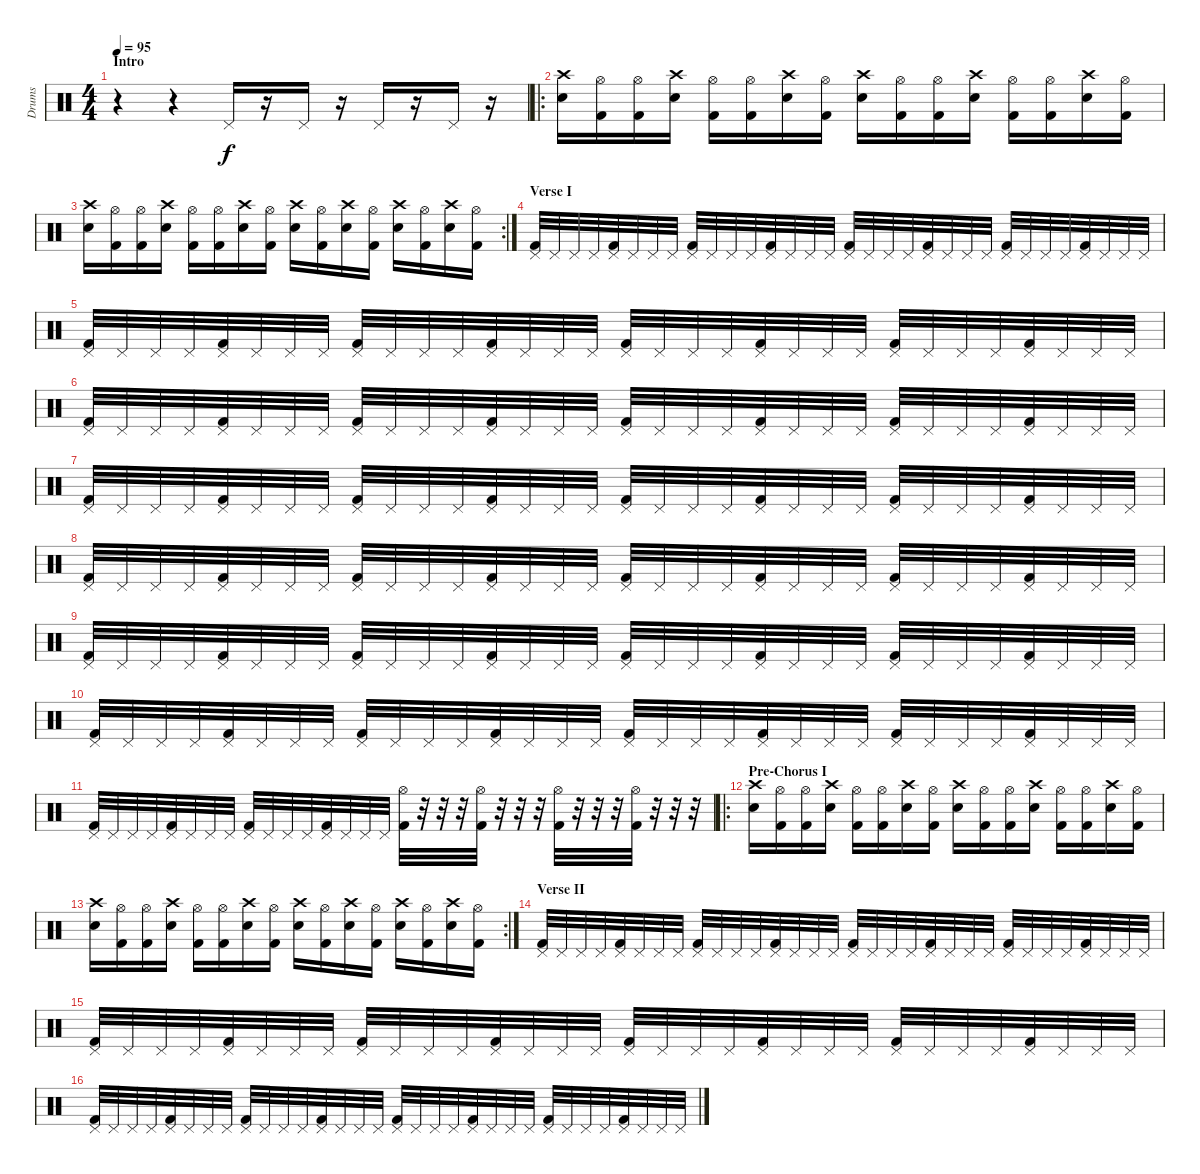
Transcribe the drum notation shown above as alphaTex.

\track ("Drums" "Drums") {instrument percussion}
\staff {score}
\articulation defaults
\ts (4 4)
\section ("" "Intro")
\tempo 95
\clef neutral
\ks c
r.4{dy f} r.4 "Pedal Hi-Hat (hit)".16 r.16 "Pedal Hi-Hat (hit)".16 r.16 "Pedal Hi-Hat (hit)".16 r.16 "Pedal Hi-Hat (hit)".16 r.16 |
\ro
("Crash high (hit)" "Electric Snare (hit)").16 ("Hi-Hat (open)" "Kick (hit) 2").16 ("Hi-Hat (open)" "Kick (hit) 2").16 ("Crash high (hit)" "Electric Snare (hit)").16 ("Hi-Hat (open)" "Kick (hit) 2").16 ("Hi-Hat (open)" "Kick (hit) 2").16 ("Crash high (hit)" "Electric Snare (hit)").16 ("Hi-Hat (open)" "Kick (hit) 2").16 ("Crash high (hit)" "Electric Snare (hit)").16 ("Hi-Hat (open)" "Kick (hit) 2").16 ("Hi-Hat (open)" "Kick (hit) 2").16 ("Crash high (hit)" "Electric Snare (hit)").16 ("Hi-Hat (open)" "Kick (hit) 2").16 ("Hi-Hat (open)" "Kick (hit) 2").16 ("Crash high (hit)" "Electric Snare (hit)").16 ("Hi-Hat (open)" "Kick (hit) 2").16 |
\rc 2
("Crash high (hit)" "Electric Snare (hit)").16 ("Hi-Hat (open)" "Kick (hit) 2").16 ("Hi-Hat (open)" "Kick (hit) 2").16 ("Crash high (hit)" "Electric Snare (hit)").16 ("Hi-Hat (open)" "Kick (hit) 2").16 ("Hi-Hat (open)" "Kick (hit) 2").16 ("Crash high (hit)" "Electric Snare (hit)").16 ("Hi-Hat (open)" "Kick (hit) 2").16 ("Crash high (hit)" "Electric Snare (hit)").16 ("Hi-Hat (open)" "Kick (hit) 2").16 ("Crash high (hit)" "Electric Snare (hit)").16 ("Hi-Hat (open)" "Kick (hit) 2").16 ("Crash high (hit)" "Electric Snare (hit)").16 ("Hi-Hat (open)" "Kick (hit) 2").16 ("Crash high (hit)" "Electric Snare (hit)").16 ("Hi-Hat (open)" "Kick (hit) 2").16 |
\section ("" "Verse I")
("Pedal Hi-Hat (hit)" "Kick (hit) 2").32 "Pedal Hi-Hat (hit)".32 "Pedal Hi-Hat (hit)".32 "Pedal Hi-Hat (hit)".32 ("Pedal Hi-Hat (hit)" "Kick (hit) 2").32 "Pedal Hi-Hat (hit)".32 "Pedal Hi-Hat (hit)".32 "Pedal Hi-Hat (hit)".32 ("Pedal Hi-Hat (hit)" "Kick (hit) 2").32 "Pedal Hi-Hat (hit)".32 "Pedal Hi-Hat (hit)".32 "Pedal Hi-Hat (hit)".32 ("Pedal Hi-Hat (hit)" "Kick (hit) 2").32 "Pedal Hi-Hat (hit)".32 "Pedal Hi-Hat (hit)".32 "Pedal Hi-Hat (hit)".32 ("Pedal Hi-Hat (hit)" "Kick (hit) 2").32 "Pedal Hi-Hat (hit)".32 "Pedal Hi-Hat (hit)".32 "Pedal Hi-Hat (hit)".32 ("Pedal Hi-Hat (hit)" "Kick (hit) 2").32 "Pedal Hi-Hat (hit)".32 "Pedal Hi-Hat (hit)".32 "Pedal Hi-Hat (hit)".32 ("Pedal Hi-Hat (hit)" "Kick (hit) 2").32 "Pedal Hi-Hat (hit)".32 "Pedal Hi-Hat (hit)".32 "Pedal Hi-Hat (hit)".32 ("Pedal Hi-Hat (hit)" "Kick (hit) 2").32 "Pedal Hi-Hat (hit)".32 "Pedal Hi-Hat (hit)".32 "Pedal Hi-Hat (hit)".32 |
("Pedal Hi-Hat (hit)" "Kick (hit) 2").32 "Pedal Hi-Hat (hit)".32 "Pedal Hi-Hat (hit)".32 "Pedal Hi-Hat (hit)".32 ("Pedal Hi-Hat (hit)" "Kick (hit) 2").32 "Pedal Hi-Hat (hit)".32 "Pedal Hi-Hat (hit)".32 "Pedal Hi-Hat (hit)".32 ("Pedal Hi-Hat (hit)" "Kick (hit) 2").32 "Pedal Hi-Hat (hit)".32 "Pedal Hi-Hat (hit)".32 "Pedal Hi-Hat (hit)".32 ("Pedal Hi-Hat (hit)" "Kick (hit) 2").32 "Pedal Hi-Hat (hit)".32 "Pedal Hi-Hat (hit)".32 "Pedal Hi-Hat (hit)".32 ("Pedal Hi-Hat (hit)" "Kick (hit) 2").32 "Pedal Hi-Hat (hit)".32 "Pedal Hi-Hat (hit)".32 "Pedal Hi-Hat (hit)".32 ("Pedal Hi-Hat (hit)" "Kick (hit) 2").32 "Pedal Hi-Hat (hit)".32 "Pedal Hi-Hat (hit)".32 "Pedal Hi-Hat (hit)".32 ("Pedal Hi-Hat (hit)" "Kick (hit) 2").32 "Pedal Hi-Hat (hit)".32 "Pedal Hi-Hat (hit)".32 "Pedal Hi-Hat (hit)".32 ("Pedal Hi-Hat (hit)" "Kick (hit) 2").32 "Pedal Hi-Hat (hit)".32 "Pedal Hi-Hat (hit)".32 "Pedal Hi-Hat (hit)".32 |
("Pedal Hi-Hat (hit)" "Kick (hit) 2").32 "Pedal Hi-Hat (hit)".32 "Pedal Hi-Hat (hit)".32 "Pedal Hi-Hat (hit)".32 ("Pedal Hi-Hat (hit)" "Kick (hit) 2").32 "Pedal Hi-Hat (hit)".32 "Pedal Hi-Hat (hit)".32 "Pedal Hi-Hat (hit)".32 ("Pedal Hi-Hat (hit)" "Kick (hit) 2").32 "Pedal Hi-Hat (hit)".32 "Pedal Hi-Hat (hit)".32 "Pedal Hi-Hat (hit)".32 ("Pedal Hi-Hat (hit)" "Kick (hit) 2").32 "Pedal Hi-Hat (hit)".32 "Pedal Hi-Hat (hit)".32 "Pedal Hi-Hat (hit)".32 ("Pedal Hi-Hat (hit)" "Kick (hit) 2").32 "Pedal Hi-Hat (hit)".32 "Pedal Hi-Hat (hit)".32 "Pedal Hi-Hat (hit)".32 ("Pedal Hi-Hat (hit)" "Kick (hit) 2").32 "Pedal Hi-Hat (hit)".32 "Pedal Hi-Hat (hit)".32 "Pedal Hi-Hat (hit)".32 ("Pedal Hi-Hat (hit)" "Kick (hit) 2").32 "Pedal Hi-Hat (hit)".32 "Pedal Hi-Hat (hit)".32 "Pedal Hi-Hat (hit)".32 ("Pedal Hi-Hat (hit)" "Kick (hit) 2").32 "Pedal Hi-Hat (hit)".32 "Pedal Hi-Hat (hit)".32 "Pedal Hi-Hat (hit)".32 |
("Pedal Hi-Hat (hit)" "Kick (hit) 2").32 "Pedal Hi-Hat (hit)".32 "Pedal Hi-Hat (hit)".32 "Pedal Hi-Hat (hit)".32 ("Pedal Hi-Hat (hit)" "Kick (hit) 2").32 "Pedal Hi-Hat (hit)".32 "Pedal Hi-Hat (hit)".32 "Pedal Hi-Hat (hit)".32 ("Pedal Hi-Hat (hit)" "Kick (hit) 2").32 "Pedal Hi-Hat (hit)".32 "Pedal Hi-Hat (hit)".32 "Pedal Hi-Hat (hit)".32 ("Pedal Hi-Hat (hit)" "Kick (hit) 2").32 "Pedal Hi-Hat (hit)".32 "Pedal Hi-Hat (hit)".32 "Pedal Hi-Hat (hit)".32 ("Pedal Hi-Hat (hit)" "Kick (hit) 2").32 "Pedal Hi-Hat (hit)".32 "Pedal Hi-Hat (hit)".32 "Pedal Hi-Hat (hit)".32 ("Pedal Hi-Hat (hit)" "Kick (hit) 2").32 "Pedal Hi-Hat (hit)".32 "Pedal Hi-Hat (hit)".32 "Pedal Hi-Hat (hit)".32 ("Pedal Hi-Hat (hit)" "Kick (hit) 2").32 "Pedal Hi-Hat (hit)".32 "Pedal Hi-Hat (hit)".32 "Pedal Hi-Hat (hit)".32 ("Pedal Hi-Hat (hit)" "Kick (hit) 2").32 "Pedal Hi-Hat (hit)".32 "Pedal Hi-Hat (hit)".32 "Pedal Hi-Hat (hit)".32 |
("Pedal Hi-Hat (hit)" "Kick (hit) 2").32 "Pedal Hi-Hat (hit)".32 "Pedal Hi-Hat (hit)".32 "Pedal Hi-Hat (hit)".32 ("Pedal Hi-Hat (hit)" "Kick (hit) 2").32 "Pedal Hi-Hat (hit)".32 "Pedal Hi-Hat (hit)".32 "Pedal Hi-Hat (hit)".32 ("Pedal Hi-Hat (hit)" "Kick (hit) 2").32 "Pedal Hi-Hat (hit)".32 "Pedal Hi-Hat (hit)".32 "Pedal Hi-Hat (hit)".32 ("Pedal Hi-Hat (hit)" "Kick (hit) 2").32 "Pedal Hi-Hat (hit)".32 "Pedal Hi-Hat (hit)".32 "Pedal Hi-Hat (hit)".32 ("Pedal Hi-Hat (hit)" "Kick (hit) 2").32 "Pedal Hi-Hat (hit)".32 "Pedal Hi-Hat (hit)".32 "Pedal Hi-Hat (hit)".32 ("Pedal Hi-Hat (hit)" "Kick (hit) 2").32 "Pedal Hi-Hat (hit)".32 "Pedal Hi-Hat (hit)".32 "Pedal Hi-Hat (hit)".32 ("Pedal Hi-Hat (hit)" "Kick (hit) 2").32 "Pedal Hi-Hat (hit)".32 "Pedal Hi-Hat (hit)".32 "Pedal Hi-Hat (hit)".32 ("Pedal Hi-Hat (hit)" "Kick (hit) 2").32 "Pedal Hi-Hat (hit)".32 "Pedal Hi-Hat (hit)".32 "Pedal Hi-Hat (hit)".32 |
("Pedal Hi-Hat (hit)" "Kick (hit) 2").32 "Pedal Hi-Hat (hit)".32 "Pedal Hi-Hat (hit)".32 "Pedal Hi-Hat (hit)".32 ("Pedal Hi-Hat (hit)" "Kick (hit) 2").32 "Pedal Hi-Hat (hit)".32 "Pedal Hi-Hat (hit)".32 "Pedal Hi-Hat (hit)".32 ("Pedal Hi-Hat (hit)" "Kick (hit) 2").32 "Pedal Hi-Hat (hit)".32 "Pedal Hi-Hat (hit)".32 "Pedal Hi-Hat (hit)".32 ("Pedal Hi-Hat (hit)" "Kick (hit) 2").32 "Pedal Hi-Hat (hit)".32 "Pedal Hi-Hat (hit)".32 "Pedal Hi-Hat (hit)".32 ("Pedal Hi-Hat (hit)" "Kick (hit) 2").32 "Pedal Hi-Hat (hit)".32 "Pedal Hi-Hat (hit)".32 "Pedal Hi-Hat (hit)".32 ("Pedal Hi-Hat (hit)" "Kick (hit) 2").32 "Pedal Hi-Hat (hit)".32 "Pedal Hi-Hat (hit)".32 "Pedal Hi-Hat (hit)".32 ("Pedal Hi-Hat (hit)" "Kick (hit) 2").32 "Pedal Hi-Hat (hit)".32 "Pedal Hi-Hat (hit)".32 "Pedal Hi-Hat (hit)".32 ("Pedal Hi-Hat (hit)" "Kick (hit) 2").32 "Pedal Hi-Hat (hit)".32 "Pedal Hi-Hat (hit)".32 "Pedal Hi-Hat (hit)".32 |
("Pedal Hi-Hat (hit)" "Kick (hit) 2").32 "Pedal Hi-Hat (hit)".32 "Pedal Hi-Hat (hit)".32 "Pedal Hi-Hat (hit)".32 ("Pedal Hi-Hat (hit)" "Kick (hit) 2").32 "Pedal Hi-Hat (hit)".32 "Pedal Hi-Hat (hit)".32 "Pedal Hi-Hat (hit)".32 ("Pedal Hi-Hat (hit)" "Kick (hit) 2").32 "Pedal Hi-Hat (hit)".32 "Pedal Hi-Hat (hit)".32 "Pedal Hi-Hat (hit)".32 ("Pedal Hi-Hat (hit)" "Kick (hit) 2").32 "Pedal Hi-Hat (hit)".32 "Pedal Hi-Hat (hit)".32 "Pedal Hi-Hat (hit)".32 ("Pedal Hi-Hat (hit)" "Kick (hit) 2").32 "Pedal Hi-Hat (hit)".32 "Pedal Hi-Hat (hit)".32 "Pedal Hi-Hat (hit)".32 ("Pedal Hi-Hat (hit)" "Kick (hit) 2").32 "Pedal Hi-Hat (hit)".32 "Pedal Hi-Hat (hit)".32 "Pedal Hi-Hat (hit)".32 ("Pedal Hi-Hat (hit)" "Kick (hit) 2").32 "Pedal Hi-Hat (hit)".32 "Pedal Hi-Hat (hit)".32 "Pedal Hi-Hat (hit)".32 ("Pedal Hi-Hat (hit)" "Kick (hit) 2").32 "Pedal Hi-Hat (hit)".32 "Pedal Hi-Hat (hit)".32 "Pedal Hi-Hat (hit)".32 |
("Pedal Hi-Hat (hit)" "Kick (hit) 2").32 "Pedal Hi-Hat (hit)".32 "Pedal Hi-Hat (hit)".32 "Pedal Hi-Hat (hit)".32 ("Pedal Hi-Hat (hit)" "Kick (hit) 2").32 "Pedal Hi-Hat (hit)".32 "Pedal Hi-Hat (hit)".32 "Pedal Hi-Hat (hit)".32 ("Pedal Hi-Hat (hit)" "Kick (hit) 2").32 "Pedal Hi-Hat (hit)".32 "Pedal Hi-Hat (hit)".32 "Pedal Hi-Hat (hit)".32 ("Pedal Hi-Hat (hit)" "Kick (hit) 2").32 "Pedal Hi-Hat (hit)".32 "Pedal Hi-Hat (hit)".32 "Pedal Hi-Hat (hit)".32 ("Hi-Hat (open)" "Kick (hit) 2").32 r.32 r.32 r.32 ("Hi-Hat (open)" "Kick (hit) 2").32 r.32 r.32 r.32 ("Hi-Hat (open)" "Kick (hit) 2").32 r.32 r.32 r.32 ("Hi-Hat (open)" "Kick (hit) 2").32 r.32 r.32 r.32 |
\ro
\section ("" "Pre-Chorus I")
("Crash high (hit)" "Electric Snare (hit)").16 ("Hi-Hat (open)" "Kick (hit) 2").16 ("Hi-Hat (open)" "Kick (hit) 2").16 ("Crash high (hit)" "Electric Snare (hit)").16 ("Hi-Hat (open)" "Kick (hit) 2").16 ("Hi-Hat (open)" "Kick (hit) 2").16 ("Crash high (hit)" "Electric Snare (hit)").16 ("Hi-Hat (open)" "Kick (hit) 2").16 ("Crash high (hit)" "Electric Snare (hit)").16 ("Hi-Hat (open)" "Kick (hit) 2").16 ("Hi-Hat (open)" "Kick (hit) 2").16 ("Crash high (hit)" "Electric Snare (hit)").16 ("Hi-Hat (open)" "Kick (hit) 2").16 ("Hi-Hat (open)" "Kick (hit) 2").16 ("Crash high (hit)" "Electric Snare (hit)").16 ("Hi-Hat (open)" "Kick (hit) 2").16 |
\rc 2
("Crash high (hit)" "Electric Snare (hit)").16 ("Hi-Hat (open)" "Kick (hit) 2").16 ("Hi-Hat (open)" "Kick (hit) 2").16 ("Crash high (hit)" "Electric Snare (hit)").16 ("Hi-Hat (open)" "Kick (hit) 2").16 ("Hi-Hat (open)" "Kick (hit) 2").16 ("Crash high (hit)" "Electric Snare (hit)").16 ("Hi-Hat (open)" "Kick (hit) 2").16 ("Crash high (hit)" "Electric Snare (hit)").16 ("Hi-Hat (open)" "Kick (hit) 2").16 ("Crash high (hit)" "Electric Snare (hit)").16 ("Hi-Hat (open)" "Kick (hit) 2").16 ("Crash high (hit)" "Electric Snare (hit)").16 ("Hi-Hat (open)" "Kick (hit) 2").16 ("Crash high (hit)" "Electric Snare (hit)").16 ("Hi-Hat (open)" "Kick (hit) 2").16 |
\section ("" "Verse II")
("Pedal Hi-Hat (hit)" "Kick (hit) 2").32 "Pedal Hi-Hat (hit)".32 "Pedal Hi-Hat (hit)".32 "Pedal Hi-Hat (hit)".32 ("Pedal Hi-Hat (hit)" "Kick (hit) 2").32 "Pedal Hi-Hat (hit)".32 "Pedal Hi-Hat (hit)".32 "Pedal Hi-Hat (hit)".32 ("Pedal Hi-Hat (hit)" "Kick (hit) 2").32 "Pedal Hi-Hat (hit)".32 "Pedal Hi-Hat (hit)".32 "Pedal Hi-Hat (hit)".32 ("Pedal Hi-Hat (hit)" "Kick (hit) 2").32 "Pedal Hi-Hat (hit)".32 "Pedal Hi-Hat (hit)".32 "Pedal Hi-Hat (hit)".32 ("Pedal Hi-Hat (hit)" "Kick (hit) 2").32 "Pedal Hi-Hat (hit)".32 "Pedal Hi-Hat (hit)".32 "Pedal Hi-Hat (hit)".32 ("Pedal Hi-Hat (hit)" "Kick (hit) 2").32 "Pedal Hi-Hat (hit)".32 "Pedal Hi-Hat (hit)".32 "Pedal Hi-Hat (hit)".32 ("Pedal Hi-Hat (hit)" "Kick (hit) 2").32 "Pedal Hi-Hat (hit)".32 "Pedal Hi-Hat (hit)".32 "Pedal Hi-Hat (hit)".32 ("Pedal Hi-Hat (hit)" "Kick (hit) 2").32 "Pedal Hi-Hat (hit)".32 "Pedal Hi-Hat (hit)".32 "Pedal Hi-Hat (hit)".32 |
("Pedal Hi-Hat (hit)" "Kick (hit) 2").32 "Pedal Hi-Hat (hit)".32 "Pedal Hi-Hat (hit)".32 "Pedal Hi-Hat (hit)".32 ("Pedal Hi-Hat (hit)" "Kick (hit) 2").32 "Pedal Hi-Hat (hit)".32 "Pedal Hi-Hat (hit)".32 "Pedal Hi-Hat (hit)".32 ("Pedal Hi-Hat (hit)" "Kick (hit) 2").32 "Pedal Hi-Hat (hit)".32 "Pedal Hi-Hat (hit)".32 "Pedal Hi-Hat (hit)".32 ("Pedal Hi-Hat (hit)" "Kick (hit) 2").32 "Pedal Hi-Hat (hit)".32 "Pedal Hi-Hat (hit)".32 "Pedal Hi-Hat (hit)".32 ("Pedal Hi-Hat (hit)" "Kick (hit) 2").32 "Pedal Hi-Hat (hit)".32 "Pedal Hi-Hat (hit)".32 "Pedal Hi-Hat (hit)".32 ("Pedal Hi-Hat (hit)" "Kick (hit) 2").32 "Pedal Hi-Hat (hit)".32 "Pedal Hi-Hat (hit)".32 "Pedal Hi-Hat (hit)".32 ("Pedal Hi-Hat (hit)" "Kick (hit) 2").32 "Pedal Hi-Hat (hit)".32 "Pedal Hi-Hat (hit)".32 "Pedal Hi-Hat (hit)".32 ("Pedal Hi-Hat (hit)" "Kick (hit) 2").32 "Pedal Hi-Hat (hit)".32 "Pedal Hi-Hat (hit)".32 "Pedal Hi-Hat (hit)".32 |
("Pedal Hi-Hat (hit)" "Kick (hit) 2").32 "Pedal Hi-Hat (hit)".32 "Pedal Hi-Hat (hit)".32 "Pedal Hi-Hat (hit)".32 ("Pedal Hi-Hat (hit)" "Kick (hit) 2").32 "Pedal Hi-Hat (hit)".32 "Pedal Hi-Hat (hit)".32 "Pedal Hi-Hat (hit)".32 ("Pedal Hi-Hat (hit)" "Kick (hit) 2").32 "Pedal Hi-Hat (hit)".32 "Pedal Hi-Hat (hit)".32 "Pedal Hi-Hat (hit)".32 ("Pedal Hi-Hat (hit)" "Kick (hit) 2").32 "Pedal Hi-Hat (hit)".32 "Pedal Hi-Hat (hit)".32 "Pedal Hi-Hat (hit)".32 ("Pedal Hi-Hat (hit)" "Kick (hit) 2").32 "Pedal Hi-Hat (hit)".32 "Pedal Hi-Hat (hit)".32 "Pedal Hi-Hat (hit)".32 ("Pedal Hi-Hat (hit)" "Kick (hit) 2").32 "Pedal Hi-Hat (hit)".32 "Pedal Hi-Hat (hit)".32 "Pedal Hi-Hat (hit)".32 ("Pedal Hi-Hat (hit)" "Kick (hit) 2").32 "Pedal Hi-Hat (hit)".32 "Pedal Hi-Hat (hit)".32 "Pedal Hi-Hat (hit)".32 ("Pedal Hi-Hat (hit)" "Kick (hit) 2").32 "Pedal Hi-Hat (hit)".32 "Pedal Hi-Hat (hit)".32 "Pedal Hi-Hat (hit)".32
